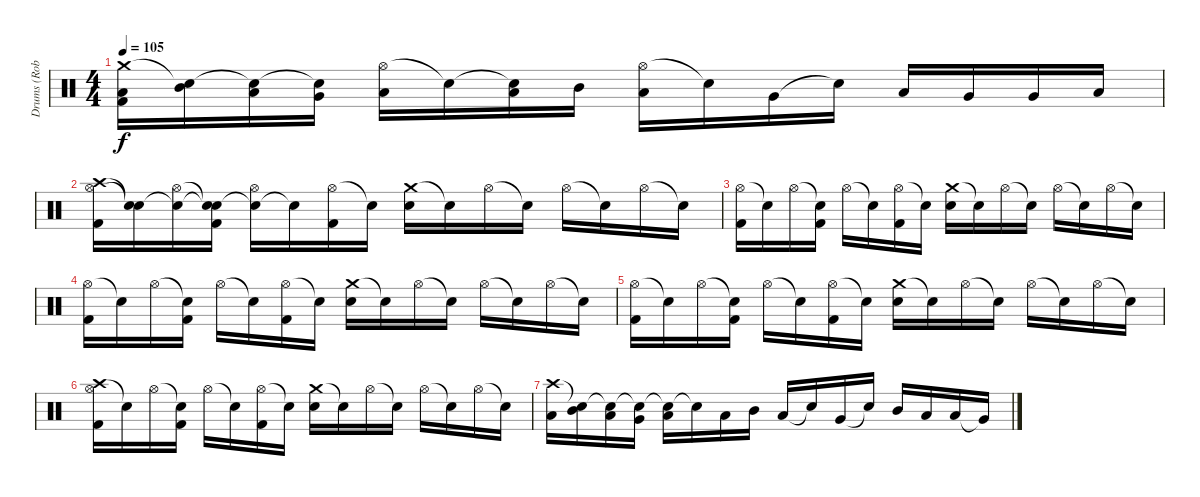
\track ("Drums (Rob Bourdon)" "Drums (Rob") {instrument percussion}
\staff {score}
\articulation defaults
\ts (4 4)
\tempo 105
\clef neutral
\ks c
("Crash medium (hit)" "Low Tom (hit)" "Kick (hit) 2").16{dy f} ("Snare (hit)"{t} "Mid Tom (hit)").16 ("Snare (hit)"{t} "Low Tom (hit)").16 ("Snare (hit)"{t} "Very Low Tom (hit)").16 ("Hi-Hat (open)" "Low Floor Tom (hit)").16 "Snare (hit)"{t}.16 ("Snare (hit)"{t} "Low Tom (hit)").16 "Mid Tom (hit)".16 ("Hi-Hat (open)" "Low Tom (hit)").16 "Snare (hit)"{t}.16 "Very Low Tom (hit)".16 "Snare (hit)"{t}.16 "Low Tom (hit)".16 "Very Low Tom (hit)".16 "Very Low Tom (hit)".16 "Low Floor Tom (hit)".16 |
("Crash high (hit)" "Hi-Hat (open)" "Kick (hit) 2").16{volume 12} ("Snare (hit)"{t} "Snare (hit)"{t}).16 ("Snare (hit)"{t} "Hi-Hat (open)").16 ("Snare (hit)"{t} "Snare (hit)"{t} "Kick (hit) 2").16 ("Snare (hit)"{t} "Hi-Hat (open)").16 "Snare (hit)"{t}.16 ("Hi-Hat (open)" "Kick (hit) 2").16 "Snare (hit)"{t}.16 ("Crash medium (hit)" "Electric Snare (hit)").16 "Snare (hit)"{t}.16 "Hi-Hat (open)".16 "Snare (hit)"{t}.16 "Hi-Hat (open)".16 "Snare (hit)"{t}.16 "Hi-Hat (open)".16 "Snare (hit)"{t}.16 |
("Hi-Hat (open)" "Kick (hit) 2").16 "Snare (hit)"{t}.16 "Hi-Hat (open)".16 ("Snare (hit)"{t} "Kick (hit) 2").16 "Hi-Hat (open)".16 "Snare (hit)"{t}.16 ("Hi-Hat (open)" "Kick (hit) 2").16 "Snare (hit)"{t}.16 ("Crash medium (hit)" "Electric Snare (hit)").16 "Snare (hit)"{t}.16 "Hi-Hat (open)".16 "Snare (hit)"{t}.16 "Hi-Hat (open)".16 "Snare (hit)"{t}.16 "Hi-Hat (open)".16 "Snare (hit)"{t}.16 |
("Hi-Hat (open)" "Kick (hit) 2").16 "Snare (hit)"{t}.16 "Hi-Hat (open)".16 ("Snare (hit)"{t} "Kick (hit) 2").16 "Hi-Hat (open)".16 "Snare (hit)"{t}.16 ("Hi-Hat (open)" "Kick (hit) 2").16 "Snare (hit)"{t}.16 ("Crash medium (hit)" "Electric Snare (hit)").16 "Snare (hit)"{t}.16 "Hi-Hat (open)".16 "Snare (hit)"{t}.16 "Hi-Hat (open)".16 "Snare (hit)"{t}.16 "Hi-Hat (open)".16 "Snare (hit)"{t}.16 |
("Hi-Hat (open)" "Kick (hit) 2").16 "Snare (hit)"{t}.16 "Hi-Hat (open)".16 ("Snare (hit)"{t} "Kick (hit) 2").16 "Hi-Hat (open)".16 "Snare (hit)"{t}.16 ("Hi-Hat (open)" "Kick (hit) 2").16 "Snare (hit)"{t}.16 ("Crash medium (hit)" "Electric Snare (hit)").16 "Snare (hit)"{t}.16 "Hi-Hat (open)".16 "Snare (hit)"{t}.16 "Hi-Hat (open)".16 "Snare (hit)"{t}.16 "Hi-Hat (open)".16 "Snare (hit)"{t}.16 |
("Crash high (hit)" "Hi-Hat (open)" "Kick (hit) 2").16 "Snare (hit)"{t}.16 "Hi-Hat (open)".16 ("Snare (hit)"{t} "Kick (hit) 2").16 "Hi-Hat (open)".16 "Snare (hit)"{t}.16 ("Hi-Hat (open)" "Kick (hit) 2").16 "Snare (hit)"{t}.16 ("Crash medium (hit)" "Electric Snare (hit)").16 "Snare (hit)"{t}.16 "Hi-Hat (open)".16 "Snare (hit)"{t}.16 "Hi-Hat (open)".16 "Snare (hit)"{t}.16 "Hi-Hat (open)".16 "Snare (hit)"{t}.16 |
("Crash high (hit)" "Low Tom (hit)").16 ("Snare (hit)"{t} "Mid Tom (hit)").16 ("Snare (hit)"{t} "Low Tom (hit)").16 ("Snare (hit)"{t} "Very Low Tom (hit)").16 ("Snare (hit)"{t} "Low Floor Tom (hit)").16 "Snare (hit)"{t}.16 "Low Tom (hit)".16 "Mid Tom (hit)".16 "Low Tom (hit)".16 "Snare (hit)"{t}.16 "Very Low Tom (hit)".16 "Snare (hit)"{t}.16 "Mid Tom (hit)".16 "Low Tom (hit)".16 "Low Tom (hit)".16 "Very Low Tom (hit)"{t}.16
